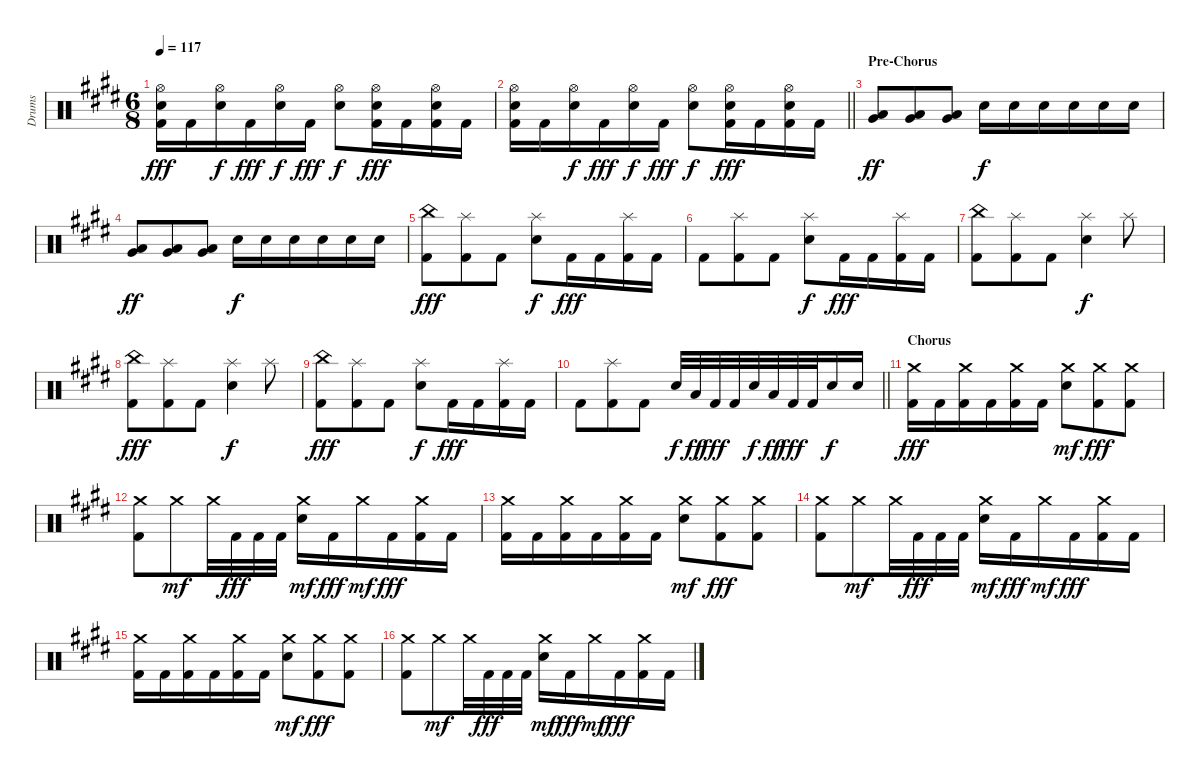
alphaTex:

\track ("Drums" "Drums") {instrument percussion}
\staff {score}
\articulation defaults
\ts (6 8)
\tempo 117
\clef neutral
\ks c#minor
("Hi-Hat (open)" "Electric Snare (hit)" "Kick (hit) 2").16{dy fff} "Kick (hit) 2".16 ("Hi-Hat (open)" "Electric Snare (hit)").16{dy f} "Kick (hit) 2".16{dy fff} ("Hi-Hat (open)" "Electric Snare (hit)").16{dy f} "Kick (hit) 2".16{dy fff} ("Hi-Hat (open)" "Electric Snare (hit)").8{dy f} ("Hi-Hat (open)" "Electric Snare (hit)" "Kick (hit) 2").16{dy fff} "Kick (hit) 2".16 ("Hi-Hat (open)" "Electric Snare (hit)" "Kick (hit) 2").16 "Kick (hit) 2".16 |
\barLineRight lightlight
("Hi-Hat (open)" "Electric Snare (hit)" "Kick (hit) 2").16 "Kick (hit) 2".16 ("Hi-Hat (open)" "Electric Snare (hit)").16{dy f} "Kick (hit) 2".16{dy fff} ("Hi-Hat (open)" "Electric Snare (hit)").16{dy f} "Kick (hit) 2".16{dy fff} ("Hi-Hat (open)" "Electric Snare (hit)").8{dy f} ("Hi-Hat (open)" "Electric Snare (hit)" "Kick (hit) 2").16{dy fff} "Kick (hit) 2".16 ("Hi-Hat (open)" "Electric Snare (hit)" "Kick (hit) 2").16 "Kick (hit) 2".16 |
\section ("" "Pre-Chorus")
("Very Low Tom (hit)" "Low Floor Tom (hit)").8{dy ff} ("Very Low Tom (hit)" "Low Floor Tom (hit)").8 ("Very Low Tom (hit)" "Low Floor Tom (hit)").8 "Electric Snare (hit)".16{dy f} "Electric Snare (hit)".16 "Electric Snare (hit)".16 "Electric Snare (hit)".16 "Electric Snare (hit)".16 "Electric Snare (hit)".16 |
("Very Low Tom (hit)" "Low Floor Tom (hit)").8{dy ff} ("Very Low Tom (hit)" "Low Floor Tom (hit)").8 ("Very Low Tom (hit)" "Low Floor Tom (hit)").8 "Electric Snare (hit)".16{dy f} "Electric Snare (hit)".16 "Electric Snare (hit)".16 "Electric Snare (hit)".16 "Electric Snare (hit)".16 "Electric Snare (hit)".16 |
("China (hit)" "Kick (hit) 2").8{dy fff} ("Splash (hit)" "Kick (hit) 2").8 "Kick (hit) 2".8 ("Splash (hit)" "Electric Snare (hit)").8{dy f} "Kick (hit) 2".16{dy fff} "Kick (hit) 2".16 ("Splash (hit)" "Kick (hit) 2").16 "Kick (hit) 2".16 |
"Kick (hit) 2".8 ("Splash (hit)" "Kick (hit) 2").8 "Kick (hit) 2".8 ("Splash (hit)" "Electric Snare (hit)").8{dy f} "Kick (hit) 2".16{dy fff} "Kick (hit) 2".16 ("Splash (hit)" "Kick (hit) 2").16 "Kick (hit) 2".16 |
("China (hit)" "Kick (hit) 2").8 ("Splash (hit)" "Kick (hit) 2").8 "Kick (hit) 2".8 ("Splash (hit)" "Electric Snare (hit)").4{dy f} "Splash (hit)".8 |
("China (hit)" "Kick (hit) 2").8{dy fff} ("Splash (hit)" "Kick (hit) 2").8 "Kick (hit) 2".8 ("Splash (hit)" "Electric Snare (hit)").4{dy f} "Splash (hit)".8 |
("China (hit)" "Kick (hit) 2").8{dy fff} ("Splash (hit)" "Kick (hit) 2").8 "Kick (hit) 2".8 ("Splash (hit)" "Electric Snare (hit)").8{dy f} "Kick (hit) 2".16{dy fff} "Kick (hit) 2".16 ("Splash (hit)" "Kick (hit) 2").16 "Kick (hit) 2".16 |
\barLineRight lightlight "Kick (hit) 2".8
("Splash (hit)" "Kick (hit) 2").8 "Kick (hit) 2".8 "Electric Snare (hit)".32{dy f} "Low Tom (hit)".32{dy ff} "Kick (hit) 2".32{dy fff} "Kick (hit) 2".32 "Electric Snare (hit)".32{dy f} "Low Tom (hit)".32{dy ff} "Kick (hit) 2".32{dy fff} "Kick (hit) 2".32 "Electric Snare (hit)".16{dy f} "Electric Snare (hit)".16 |
\section ("" "Chorus")
("Crash medium (hit)" "Kick (hit) 2").16{dy fff} "Kick (hit) 2".16 ("Crash medium (hit)" "Kick (hit) 2").16 "Kick (hit) 2".16 ("Crash medium (hit)" "Kick (hit) 2").16 "Kick (hit) 2".16 ("Crash medium (hit)" "Electric Snare (hit)").8{dy mf} ("Crash medium (hit)" "Kick (hit) 2").8{dy fff} ("Crash medium (hit)" "Kick (hit) 2").8 |
("Crash medium (hit)" "Kick (hit) 2").8 "Crash medium (hit)".8{dy mf} "Crash medium (hit)".32 "Kick (hit) 2".32{dy fff} "Kick (hit) 2".32 "Kick (hit) 2".32 ("Crash medium (hit)" "Electric Snare (hit)").16{dy mf} "Kick (hit) 2".16{dy fff} "Crash medium (hit)".16{dy mf} "Kick (hit) 2".16{dy fff} ("Crash medium (hit)" "Kick (hit) 2").16 "Kick (hit) 2".16 |
("Crash medium (hit)" "Kick (hit) 2").16 "Kick (hit) 2".16 ("Crash medium (hit)" "Kick (hit) 2").16 "Kick (hit) 2".16 ("Crash medium (hit)" "Kick (hit) 2").16 "Kick (hit) 2".16 ("Crash medium (hit)" "Electric Snare (hit)").8{dy mf} ("Crash medium (hit)" "Kick (hit) 2").8{dy fff} ("Crash medium (hit)" "Kick (hit) 2").8 |
("Crash medium (hit)" "Kick (hit) 2").8 "Crash medium (hit)".8{dy mf} "Crash medium (hit)".32 "Kick (hit) 2".32{dy fff} "Kick (hit) 2".32 "Kick (hit) 2".32 ("Crash medium (hit)" "Electric Snare (hit)").16{dy mf} "Kick (hit) 2".16{dy fff} "Crash medium (hit)".16{dy mf} "Kick (hit) 2".16{dy fff} ("Crash medium (hit)" "Kick (hit) 2").16 "Kick (hit) 2".16 |
("Crash medium (hit)" "Kick (hit) 2").16 "Kick (hit) 2".16 ("Crash medium (hit)" "Kick (hit) 2").16 "Kick (hit) 2".16 ("Crash medium (hit)" "Kick (hit) 2").16 "Kick (hit) 2".16 ("Crash medium (hit)" "Electric Snare (hit)").8{dy mf} ("Crash medium (hit)" "Kick (hit) 2").8{dy fff} ("Crash medium (hit)" "Kick (hit) 2").8 |
("Crash medium (hit)" "Kick (hit) 2").8 "Crash medium (hit)".8{dy mf} "Crash medium (hit)".32 "Kick (hit) 2".32{dy fff} "Kick (hit) 2".32 "Kick (hit) 2".32 ("Crash medium (hit)" "Electric Snare (hit)").16{dy mf} "Kick (hit) 2".16{dy fff} "Crash medium (hit)".16{dy mf} "Kick (hit) 2".16{dy fff} ("Crash medium (hit)" "Kick (hit) 2").16 "Kick (hit) 2".16
